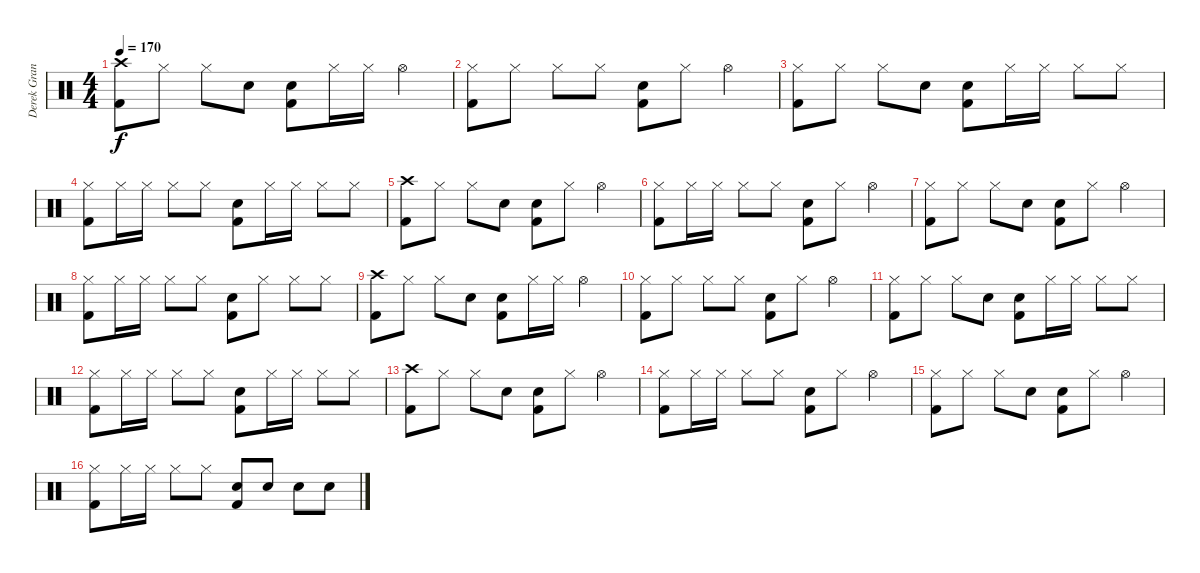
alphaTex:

\track ("Derek Grant" "Derek Gran") {instrument percussion}
\staff {score}
\articulation defaults
\ts (4 4)
\tempo 170
\clef neutral
\ks c
("Crash high (hit)" "Kick (hit) 2").8{dy f} "Hi-Hat (closed)".8 "Hi-Hat (closed)".8 "Snare (hit) 2".8 ("Snare (hit) 2" "Kick (hit) 2").8 "Hi-Hat (closed)".16 "Hi-Hat (closed)".16 "Hi-Hat (open)".4 |
("Hi-Hat (closed)" "Kick (hit) 2").8 "Hi-Hat (closed)".8 "Hi-Hat (closed)".8 "Hi-Hat (closed)".8 ("Snare (hit) 2" "Kick (hit) 2").8 "Hi-Hat (closed)".8 "Hi-Hat (open)".4 |
("Hi-Hat (closed)" "Kick (hit) 2").8 "Hi-Hat (closed)".8 "Hi-Hat (closed)".8 "Snare (hit) 2".8 ("Snare (hit) 2" "Kick (hit) 2").8 "Hi-Hat (closed)".16 "Hi-Hat (closed)".16 "Hi-Hat (closed)".8 "Hi-Hat (closed)".8 |
("Hi-Hat (closed)" "Kick (hit) 2").8 "Hi-Hat (closed)".16 "Hi-Hat (closed)".16 "Hi-Hat (closed)".8 "Hi-Hat (closed)".8 ("Snare (hit) 2" "Kick (hit) 2").8 "Hi-Hat (closed)".16 "Hi-Hat (closed)".16 "Hi-Hat (closed)".8 "Hi-Hat (closed)".8 |
("Crash high (hit)" "Kick (hit) 2").8 "Hi-Hat (closed)".8 "Hi-Hat (closed)".8 "Snare (hit) 2".8 ("Snare (hit) 2" "Kick (hit) 2").8 "Hi-Hat (closed)".8 "Hi-Hat (open)".4 |
("Hi-Hat (closed)" "Kick (hit) 2").8 "Hi-Hat (closed)".16 "Hi-Hat (closed)".16 "Hi-Hat (closed)".8 "Hi-Hat (closed)".8 ("Snare (hit) 2" "Kick (hit) 2").8 "Hi-Hat (closed)".8 "Hi-Hat (open)".4 |
("Hi-Hat (closed)" "Kick (hit) 2").8 "Hi-Hat (closed)".8 "Hi-Hat (closed)".8 "Snare (hit) 2".8 ("Snare (hit) 2" "Kick (hit) 2").8 "Hi-Hat (closed)".8 "Hi-Hat (open)".4 |
("Hi-Hat (closed)" "Kick (hit) 2").8 "Hi-Hat (closed)".16 "Hi-Hat (closed)".16 "Hi-Hat (closed)".8 "Hi-Hat (closed)".8 ("Snare (hit) 2" "Kick (hit) 2").8 "Hi-Hat (closed)".8 "Hi-Hat (closed)".8 "Hi-Hat (closed)".8 |
("Crash high (hit)" "Kick (hit) 2").8 "Hi-Hat (closed)".8 "Hi-Hat (closed)".8 "Snare (hit) 2".8 ("Snare (hit) 2" "Kick (hit) 2").8 "Hi-Hat (closed)".16 "Hi-Hat (closed)".16 "Hi-Hat (open)".4 |
("Hi-Hat (closed)" "Kick (hit) 2").8 "Hi-Hat (closed)".8 "Hi-Hat (closed)".8 "Hi-Hat (closed)".8 ("Snare (hit) 2" "Kick (hit) 2").8 "Hi-Hat (closed)".8 "Hi-Hat (open)".4 |
("Hi-Hat (closed)" "Kick (hit) 2").8 "Hi-Hat (closed)".8 "Hi-Hat (closed)".8 "Snare (hit) 2".8 ("Snare (hit) 2" "Kick (hit) 2").8 "Hi-Hat (closed)".16 "Hi-Hat (closed)".16 "Hi-Hat (closed)".8 "Hi-Hat (closed)".8 |
("Hi-Hat (closed)" "Kick (hit) 2").8 "Hi-Hat (closed)".16 "Hi-Hat (closed)".16 "Hi-Hat (closed)".8 "Hi-Hat (closed)".8 ("Snare (hit) 2" "Kick (hit) 2").8 "Hi-Hat (closed)".16 "Hi-Hat (closed)".16 "Hi-Hat (closed)".8 "Hi-Hat (closed)".8 |
("Crash high (hit)" "Kick (hit) 2").8 "Hi-Hat (closed)".8 "Hi-Hat (closed)".8 "Snare (hit) 2".8 ("Snare (hit) 2" "Kick (hit) 2").8 "Hi-Hat (closed)".8 "Hi-Hat (open)".4 |
("Hi-Hat (closed)" "Kick (hit) 2").8 "Hi-Hat (closed)".16 "Hi-Hat (closed)".16 "Hi-Hat (closed)".8 "Hi-Hat (closed)".8 ("Snare (hit) 2" "Kick (hit) 2").8 "Hi-Hat (closed)".8 "Hi-Hat (open)".4 |
("Hi-Hat (closed)" "Kick (hit) 2").8 "Hi-Hat (closed)".8 "Hi-Hat (closed)".8 "Snare (hit) 2".8 ("Snare (hit) 2" "Kick (hit) 2").8 "Hi-Hat (closed)".8 "Hi-Hat (open)".4 |
("Hi-Hat (closed)" "Kick (hit) 2").8 "Hi-Hat (closed)".16 "Hi-Hat (closed)".16 "Hi-Hat (closed)".8 "Hi-Hat (closed)".8 ("Snare (hit) 2" "Kick (hit) 2").8 "Snare (hit) 2".8 "Snare (hit) 2".8 "Snare (hit) 2".8
